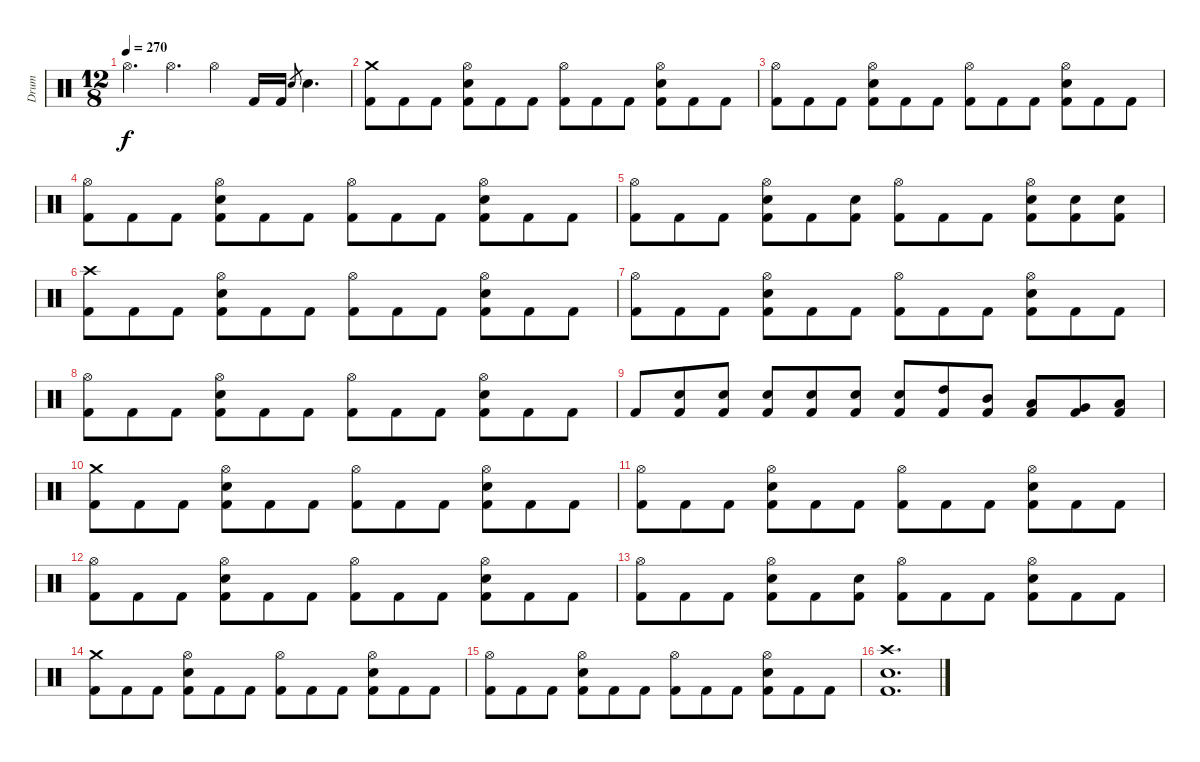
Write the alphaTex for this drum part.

\track ("Drum" "Drum") {instrument percussion}
\staff {score}
\articulation defaults
\ts (12 8)
\tempo 270
\clef neutral
\ks c "Hi-Hat (open)".4{d dy f} "Hi-Hat (open)".4{d} "Hi-Hat (open)".4 "Kick (hit) 2".16 "Kick (hit) 2".16 "Electric Snare (hit)".8{gr} "Electric Snare (hit)".4{d}
|
("Crash medium (hit)" "Kick (hit) 2").8 "Kick (hit) 2".8 "Kick (hit) 2".8 ("Hi-Hat (open)" "Electric Snare (hit)" "Kick (hit) 2").8 "Kick (hit) 2".8 "Kick (hit) 2".8 ("Hi-Hat (open)" "Kick (hit) 2").8 "Kick (hit) 2".8 "Kick (hit) 2".8 ("Hi-Hat (open)" "Electric Snare (hit)" "Kick (hit) 2").8 "Kick (hit) 2".8 "Kick (hit) 2".8 |
("Hi-Hat (open)" "Kick (hit) 2").8 "Kick (hit) 2".8 "Kick (hit) 2".8 ("Hi-Hat (open)" "Electric Snare (hit)" "Kick (hit) 2").8 "Kick (hit) 2".8 "Kick (hit) 2".8 ("Hi-Hat (open)" "Kick (hit) 2").8 "Kick (hit) 2".8 "Kick (hit) 2".8 ("Hi-Hat (open)" "Electric Snare (hit)" "Kick (hit) 2").8 "Kick (hit) 2".8 "Kick (hit) 2".8 |
("Hi-Hat (open)" "Kick (hit) 2").8 "Kick (hit) 2".8 "Kick (hit) 2".8 ("Hi-Hat (open)" "Electric Snare (hit)" "Kick (hit) 2").8 "Kick (hit) 2".8 "Kick (hit) 2".8 ("Hi-Hat (open)" "Kick (hit) 2").8 "Kick (hit) 2".8 "Kick (hit) 2".8 ("Hi-Hat (open)" "Electric Snare (hit)" "Kick (hit) 2").8 "Kick (hit) 2".8 "Kick (hit) 2".8 |
("Hi-Hat (open)" "Kick (hit) 2").8 "Kick (hit) 2".8 "Kick (hit) 2".8 ("Hi-Hat (open)" "Electric Snare (hit)" "Kick (hit) 2").8 "Kick (hit) 2".8 ("Electric Snare (hit)" "Kick (hit) 2").8 ("Hi-Hat (open)" "Kick (hit) 2").8 "Kick (hit) 2".8 "Kick (hit) 2".8 ("Hi-Hat (open)" "Electric Snare (hit)" "Kick (hit) 2").8 ("Electric Snare (hit)" "Kick (hit) 2").8 ("Electric Snare (hit)" "Kick (hit) 2").8 |
("Crash high (hit)" "Kick (hit) 2").8 "Kick (hit) 2".8 "Kick (hit) 2".8 ("Hi-Hat (open)" "Electric Snare (hit)" "Kick (hit) 2").8 "Kick (hit) 2".8 "Kick (hit) 2".8 ("Hi-Hat (open)" "Kick (hit) 2").8 "Kick (hit) 2".8 "Kick (hit) 2".8 ("Hi-Hat (open)" "Electric Snare (hit)" "Kick (hit) 2").8 "Kick (hit) 2".8 "Kick (hit) 2".8 |
("Hi-Hat (open)" "Kick (hit) 2").8 "Kick (hit) 2".8 "Kick (hit) 2".8 ("Hi-Hat (open)" "Electric Snare (hit)" "Kick (hit) 2").8 "Kick (hit) 2".8 "Kick (hit) 2".8 ("Hi-Hat (open)" "Kick (hit) 2").8 "Kick (hit) 2".8 "Kick (hit) 2".8 ("Hi-Hat (open)" "Electric Snare (hit)" "Kick (hit) 2").8 "Kick (hit) 2".8 "Kick (hit) 2".8 |
("Hi-Hat (open)" "Kick (hit) 2").8 "Kick (hit) 2".8 "Kick (hit) 2".8 ("Hi-Hat (open)" "Electric Snare (hit)" "Kick (hit) 2").8 "Kick (hit) 2".8 "Kick (hit) 2".8 ("Hi-Hat (open)" "Kick (hit) 2").8 "Kick (hit) 2".8 "Kick (hit) 2".8 ("Hi-Hat (open)" "Electric Snare (hit)" "Kick (hit) 2").8 "Kick (hit) 2".8 "Kick (hit) 2".8 |
"Kick (hit) 2".8 ("Electric Snare (hit)" "Kick (hit) 2").8 ("Electric Snare (hit)" "Kick (hit) 2").8 ("Electric Snare (hit)" "Kick (hit) 2").8 ("Electric Snare (hit)" "Kick (hit) 2").8 ("Electric Snare (hit)" "Kick (hit) 2").8 ("Electric Snare (hit)" "Kick (hit) 2").8 ("High Tom (hit)" "Kick (hit) 2").8 ("Mid Tom (hit)" "Kick (hit) 2").8 ("Low Tom (hit)" "Kick (hit) 2").8 ("Very Low Tom (hit)" "Kick (hit) 2").8 ("Low Floor Tom (hit)" "Kick (hit) 2").8 |
("Crash medium (hit)" "Kick (hit) 2").8 "Kick (hit) 2".8 "Kick (hit) 2".8 ("Hi-Hat (open)" "Electric Snare (hit)" "Kick (hit) 2").8 "Kick (hit) 2".8 "Kick (hit) 2".8 ("Hi-Hat (open)" "Kick (hit) 2").8 "Kick (hit) 2".8 "Kick (hit) 2".8 ("Hi-Hat (open)" "Electric Snare (hit)" "Kick (hit) 2").8 "Kick (hit) 2".8 "Kick (hit) 2".8 |
("Hi-Hat (open)" "Kick (hit) 2").8 "Kick (hit) 2".8 "Kick (hit) 2".8 ("Hi-Hat (open)" "Electric Snare (hit)" "Kick (hit) 2").8 "Kick (hit) 2".8 "Kick (hit) 2".8 ("Hi-Hat (open)" "Kick (hit) 2").8 "Kick (hit) 2".8 "Kick (hit) 2".8 ("Hi-Hat (open)" "Electric Snare (hit)" "Kick (hit) 2").8 "Kick (hit) 2".8 "Kick (hit) 2".8 |
("Hi-Hat (open)" "Kick (hit) 2").8 "Kick (hit) 2".8 "Kick (hit) 2".8 ("Hi-Hat (open)" "Electric Snare (hit)" "Kick (hit) 2").8 "Kick (hit) 2".8 "Kick (hit) 2".8 ("Hi-Hat (open)" "Kick (hit) 2").8 "Kick (hit) 2".8 "Kick (hit) 2".8 ("Hi-Hat (open)" "Electric Snare (hit)" "Kick (hit) 2").8 "Kick (hit) 2".8 "Kick (hit) 2".8 |
("Hi-Hat (open)" "Kick (hit) 2").8 "Kick (hit) 2".8 "Kick (hit) 2".8 ("Hi-Hat (open)" "Electric Snare (hit)" "Kick (hit) 2").8 "Kick (hit) 2".8 ("Electric Snare (hit)" "Kick (hit) 2").8 ("Hi-Hat (open)" "Kick (hit) 2").8 "Kick (hit) 2".8 "Kick (hit) 2".8 ("Hi-Hat (open)" "Electric Snare (hit)" "Kick (hit) 2").8 "Kick (hit) 2".8 "Kick (hit) 2".8 |
("Crash medium (hit)" "Kick (hit) 2").8 "Kick (hit) 2".8 "Kick (hit) 2".8 ("Hi-Hat (open)" "Electric Snare (hit)" "Kick (hit) 2").8 "Kick (hit) 2".8 "Kick (hit) 2".8 ("Hi-Hat (open)" "Kick (hit) 2").8 "Kick (hit) 2".8 "Kick (hit) 2".8 ("Hi-Hat (open)" "Electric Snare (hit)" "Kick (hit) 2").8 "Kick (hit) 2".8 "Kick (hit) 2".8 |
("Hi-Hat (open)" "Kick (hit) 2").8 "Kick (hit) 2".8 "Kick (hit) 2".8 ("Hi-Hat (open)" "Electric Snare (hit)" "Kick (hit) 2").8 "Kick (hit) 2".8 "Kick (hit) 2".8 ("Hi-Hat (open)" "Kick (hit) 2").8 "Kick (hit) 2".8 "Kick (hit) 2".8 ("Hi-Hat (open)" "Electric Snare (hit)" "Kick (hit) 2").8 "Kick (hit) 2".8 "Kick (hit) 2".8 |
("Crash high (hit)" "Electric Snare (hit)" "Kick (hit) 2").1{d}
